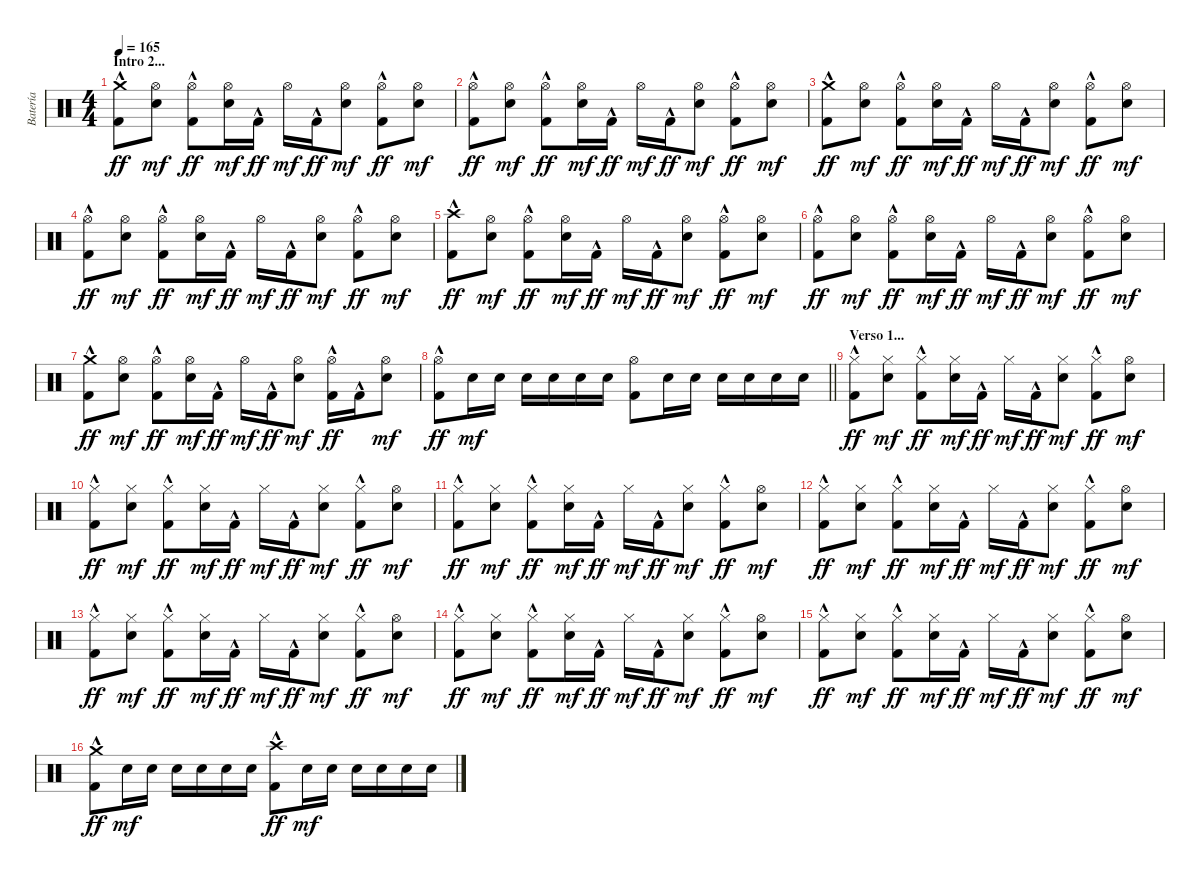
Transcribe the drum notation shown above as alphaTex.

\track ("Batería" "Batería") {instrument percussion}
\staff {score}
\articulation defaults
\ts (4 4)
\section ("" "Intro 2...")
\tempo 165
\clef neutral
\ks c
("Crash medium (hit)" "Kick (hit) 2"{hac}).8{dy ff} ("Hi-Hat (open)" "Snare (hit) 2").8{dy mf} ("Hi-Hat (open)" "Kick (hit) 2"{hac}).8{dy ff} ("Hi-Hat (open)" "Snare (hit) 2").16{dy mf} "Kick (hit) 2"{hac}.16{dy ff} "Hi-Hat (open)".16{dy mf} "Kick (hit) 2"{hac}.16{dy ff} ("Hi-Hat (open)" "Snare (hit) 2").8{dy mf} ("Hi-Hat (open)" "Kick (hit) 2"{hac}).8{dy ff} ("Hi-Hat (open)" "Snare (hit) 2").8{dy mf} |
("Hi-Hat (open)" "Kick (hit) 2"{hac}).8{dy ff} ("Hi-Hat (open)" "Snare (hit) 2").8{dy mf} ("Hi-Hat (open)" "Kick (hit) 2"{hac}).8{dy ff} ("Hi-Hat (open)" "Snare (hit) 2").16{dy mf} "Kick (hit) 2"{hac}.16{dy ff} "Hi-Hat (open)".16{dy mf} "Kick (hit) 2"{hac}.16{dy ff} ("Hi-Hat (open)" "Snare (hit) 2").8{dy mf} ("Hi-Hat (open)" "Kick (hit) 2"{hac}).8{dy ff} ("Hi-Hat (open)" "Snare (hit) 2").8{dy mf} |
("Crash medium (hit)" "Kick (hit) 2"{hac}).8{dy ff} ("Hi-Hat (open)" "Snare (hit) 2").8{dy mf} ("Hi-Hat (open)" "Kick (hit) 2"{hac}).8{dy ff} ("Hi-Hat (open)" "Snare (hit) 2").16{dy mf} "Kick (hit) 2"{hac}.16{dy ff} "Hi-Hat (open)".16{dy mf} "Kick (hit) 2"{hac}.16{dy ff} ("Hi-Hat (open)" "Snare (hit) 2").8{dy mf} ("Hi-Hat (open)" "Kick (hit) 2"{hac}).8{dy ff} ("Hi-Hat (open)" "Snare (hit) 2").8{dy mf} |
("Hi-Hat (open)" "Kick (hit) 2"{hac}).8{dy ff} ("Hi-Hat (open)" "Snare (hit) 2").8{dy mf} ("Hi-Hat (open)" "Kick (hit) 2"{hac}).8{dy ff} ("Hi-Hat (open)" "Snare (hit) 2").16{dy mf} "Kick (hit) 2"{hac}.16{dy ff} "Hi-Hat (open)".16{dy mf} "Kick (hit) 2"{hac}.16{dy ff} ("Hi-Hat (open)" "Snare (hit) 2").8{dy mf} ("Hi-Hat (open)" "Kick (hit) 2"{hac}).8{dy ff} ("Hi-Hat (open)" "Snare (hit) 2").8{dy mf} |
("Crash high (hit)" "Kick (hit) 2"{hac}).8{dy ff} ("Hi-Hat (open)" "Snare (hit) 2").8{dy mf} ("Hi-Hat (open)" "Kick (hit) 2"{hac}).8{dy ff} ("Hi-Hat (open)" "Snare (hit) 2").16{dy mf} "Kick (hit) 2"{hac}.16{dy ff} "Hi-Hat (open)".16{dy mf} "Kick (hit) 2"{hac}.16{dy ff} ("Hi-Hat (open)" "Snare (hit) 2").8{dy mf} ("Hi-Hat (open)" "Kick (hit) 2"{hac}).8{dy ff} ("Hi-Hat (open)" "Snare (hit) 2").8{dy mf} |
("Hi-Hat (open)" "Kick (hit) 2"{hac}).8{dy ff} ("Hi-Hat (open)" "Snare (hit) 2").8{dy mf} ("Hi-Hat (open)" "Kick (hit) 2"{hac}).8{dy ff} ("Hi-Hat (open)" "Snare (hit) 2").16{dy mf} "Kick (hit) 2"{hac}.16{dy ff} "Hi-Hat (open)".16{dy mf} "Kick (hit) 2"{hac}.16{dy ff} ("Hi-Hat (open)" "Snare (hit) 2").8{dy mf} ("Hi-Hat (open)" "Kick (hit) 2"{hac}).8{dy ff} ("Hi-Hat (open)" "Snare (hit) 2").8{dy mf} |
("Crash medium (hit)" "Kick (hit) 2"{hac}).8{dy ff} ("Hi-Hat (open)" "Snare (hit) 2").8{dy mf} ("Hi-Hat (open)" "Kick (hit) 2"{hac}).8{dy ff} ("Hi-Hat (open)" "Snare (hit) 2").16{dy mf} "Kick (hit) 2"{hac}.16{dy ff} "Hi-Hat (open)".16{dy mf} "Kick (hit) 2"{hac}.16{dy ff} ("Hi-Hat (open)" "Snare (hit) 2").8{dy mf} ("Hi-Hat (open)" "Kick (hit) 2"{hac}).16{dy ff} "Kick (hit) 2"{hac}.16 ("Hi-Hat (open)" "Snare (hit) 2").8{dy mf} |
\barLineRight lightlight
("Hi-Hat (open)" "Kick (hit) 2"{hac}).8{dy ff} "Snare (hit) 2".16{dy mf} "Snare (hit) 2".16 "Snare (hit) 2".16 "Snare (hit) 2".16 "Snare (hit) 2".16 "Snare (hit) 2".16 ("Hi-Hat (open)" "Kick (hit) 2").8 "Snare (hit) 2".16 "Snare (hit) 2".16 "Snare (hit) 2".16 "Snare (hit) 2".16 "Snare (hit) 2".16 "Snare (hit) 2".16 |
\section ("" "Verso 1...")
("Hi-Hat (closed)" "Kick (hit) 2"{hac}).8{dy ff} ("Hi-Hat (closed)" "Snare (hit) 2").8{dy mf} ("Hi-Hat (closed)" "Kick (hit) 2"{hac}).8{dy ff} ("Hi-Hat (closed)" "Snare (hit) 2").16{dy mf} "Kick (hit) 2"{hac}.16{dy ff} "Hi-Hat (closed)".16{dy mf} "Kick (hit) 2"{hac}.16{dy ff} ("Hi-Hat (closed)" "Snare (hit) 2").8{dy mf} ("Hi-Hat (closed)" "Kick (hit) 2"{hac}).8{dy ff} ("Hi-Hat (open)" "Snare (hit) 2").8{dy mf} |
("Hi-Hat (closed)" "Kick (hit) 2"{hac}).8{dy ff} ("Hi-Hat (closed)" "Snare (hit) 2").8{dy mf} ("Hi-Hat (closed)" "Kick (hit) 2"{hac}).8{dy ff} ("Hi-Hat (closed)" "Snare (hit) 2").16{dy mf} "Kick (hit) 2"{hac}.16{dy ff} "Hi-Hat (closed)".16{dy mf} "Kick (hit) 2"{hac}.16{dy ff} ("Hi-Hat (closed)" "Snare (hit) 2").8{dy mf} ("Hi-Hat (closed)" "Kick (hit) 2"{hac}).8{dy ff} ("Hi-Hat (open)" "Snare (hit) 2").8{dy mf} |
("Hi-Hat (closed)" "Kick (hit) 2"{hac}).8{dy ff} ("Hi-Hat (closed)" "Snare (hit) 2").8{dy mf} ("Hi-Hat (closed)" "Kick (hit) 2"{hac}).8{dy ff} ("Hi-Hat (closed)" "Snare (hit) 2").16{dy mf} "Kick (hit) 2"{hac}.16{dy ff} "Hi-Hat (closed)".16{dy mf} "Kick (hit) 2"{hac}.16{dy ff} ("Hi-Hat (closed)" "Snare (hit) 2").8{dy mf} ("Hi-Hat (closed)" "Kick (hit) 2"{hac}).8{dy ff} ("Hi-Hat (open)" "Snare (hit) 2").8{dy mf} |
("Hi-Hat (closed)" "Kick (hit) 2"{hac}).8{dy ff} ("Hi-Hat (closed)" "Snare (hit) 2").8{dy mf} ("Hi-Hat (closed)" "Kick (hit) 2"{hac}).8{dy ff} ("Hi-Hat (closed)" "Snare (hit) 2").16{dy mf} "Kick (hit) 2"{hac}.16{dy ff} "Hi-Hat (closed)".16{dy mf} "Kick (hit) 2"{hac}.16{dy ff} ("Hi-Hat (closed)" "Snare (hit) 2").8{dy mf} ("Hi-Hat (closed)" "Kick (hit) 2"{hac}).8{dy ff} ("Hi-Hat (open)" "Snare (hit) 2").8{dy mf} |
("Hi-Hat (closed)" "Kick (hit) 2"{hac}).8{dy ff} ("Hi-Hat (closed)" "Snare (hit) 2").8{dy mf} ("Hi-Hat (closed)" "Kick (hit) 2"{hac}).8{dy ff} ("Hi-Hat (closed)" "Snare (hit) 2").16{dy mf} "Kick (hit) 2"{hac}.16{dy ff} "Hi-Hat (closed)".16{dy mf} "Kick (hit) 2"{hac}.16{dy ff} ("Hi-Hat (closed)" "Snare (hit) 2").8{dy mf} ("Hi-Hat (closed)" "Kick (hit) 2"{hac}).8{dy ff} ("Hi-Hat (open)" "Snare (hit) 2").8{dy mf} |
("Hi-Hat (closed)" "Kick (hit) 2"{hac}).8{dy ff} ("Hi-Hat (closed)" "Snare (hit) 2").8{dy mf} ("Hi-Hat (closed)" "Kick (hit) 2"{hac}).8{dy ff} ("Hi-Hat (closed)" "Snare (hit) 2").16{dy mf} "Kick (hit) 2"{hac}.16{dy ff} "Hi-Hat (closed)".16{dy mf} "Kick (hit) 2"{hac}.16{dy ff} ("Hi-Hat (closed)" "Snare (hit) 2").8{dy mf} ("Hi-Hat (closed)" "Kick (hit) 2"{hac}).8{dy ff} ("Hi-Hat (open)" "Snare (hit) 2").8{dy mf} |
("Hi-Hat (closed)" "Kick (hit) 2"{hac}).8{dy ff} ("Hi-Hat (closed)" "Snare (hit) 2").8{dy mf} ("Hi-Hat (closed)" "Kick (hit) 2"{hac}).8{dy ff} ("Hi-Hat (closed)" "Snare (hit) 2").16{dy mf} "Kick (hit) 2"{hac}.16{dy ff} "Hi-Hat (closed)".16{dy mf} "Kick (hit) 2"{hac}.16{dy ff} ("Hi-Hat (closed)" "Snare (hit) 2").8{dy mf} ("Hi-Hat (closed)" "Kick (hit) 2"{hac}).8{dy ff} ("Hi-Hat (open)" "Snare (hit) 2").8{dy mf} |
("Crash medium (hit)" "Kick (hit) 2"{hac}).8{dy ff} "Snare (hit) 2".16{dy mf} "Snare (hit) 2".16 "Snare (hit) 2".16 "Snare (hit) 2".16 "Snare (hit) 2".16 "Snare (hit) 2".16 ("Crash high (hit)" "Kick (hit) 2"{hac}).8{dy ff} "Snare (hit) 2".16{dy mf} "Snare (hit) 2".16 "Snare (hit) 2".16 "Snare (hit) 2".16 "Snare (hit) 2".16 "Snare (hit) 2".16
